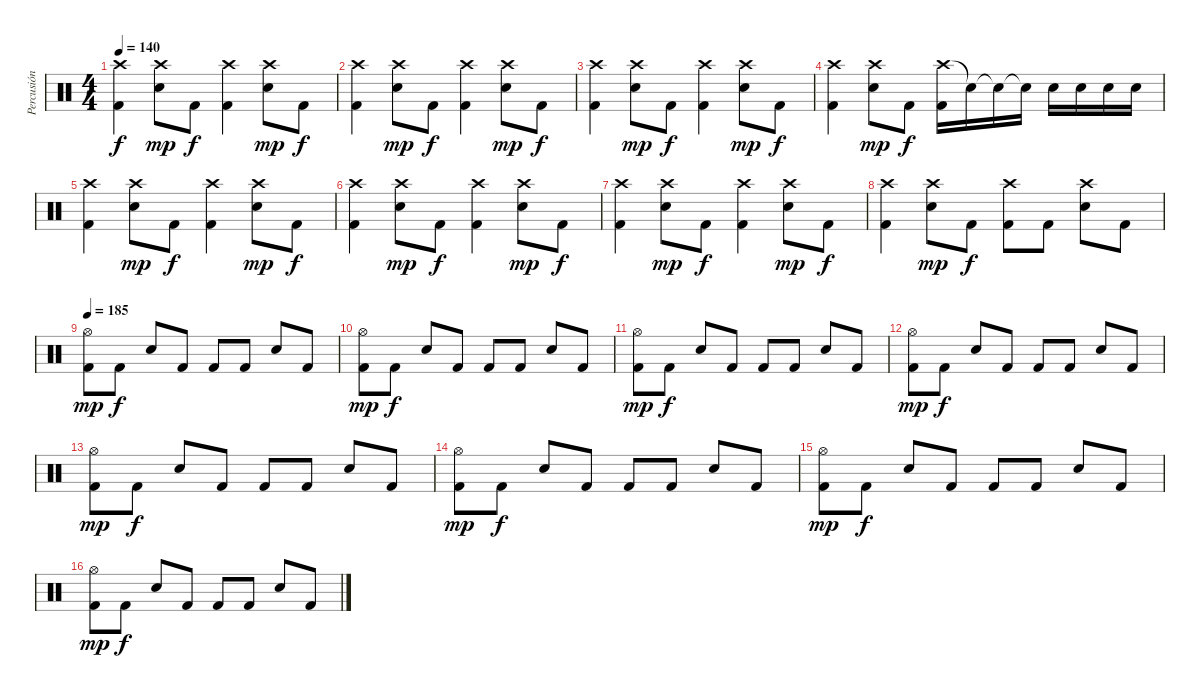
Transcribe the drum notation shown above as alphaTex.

\track ("Percusión" "Percusión") {instrument percussion}
\staff {score}
\articulation defaults
\ts (4 4)
\tempo 140
\clef neutral
\ks c
("Crash high (hit)" "Kick (hit) 2").4{dy f} ("Crash high (hit)" "Electric Snare (hit)").8{dy mp} "Kick (hit) 2".8{dy f} ("Crash high (hit)" "Kick (hit) 2").4 ("Crash high (hit)" "Electric Snare (hit)").8{dy mp} "Kick (hit) 2".8{dy f} |
("Crash high (hit)" "Kick (hit) 2").4 ("Crash high (hit)" "Electric Snare (hit)").8{dy mp} "Kick (hit) 2".8{dy f} ("Crash high (hit)" "Kick (hit) 2").4 ("Crash high (hit)" "Electric Snare (hit)").8{dy mp} "Kick (hit) 2".8{dy f} |
("Crash high (hit)" "Kick (hit) 2").4 ("Crash high (hit)" "Electric Snare (hit)").8{dy mp} "Kick (hit) 2".8{dy f} ("Crash high (hit)" "Kick (hit) 2").4 ("Crash high (hit)" "Electric Snare (hit)").8{dy mp} "Kick (hit) 2".8{dy f} |
("Crash high (hit)" "Kick (hit) 2").4 ("Crash high (hit)" "Electric Snare (hit)").8{dy mp} "Kick (hit) 2".8{dy f} ("Crash high (hit)" "Kick (hit) 2").16 "Electric Snare (hit)"{t}.16 "Electric Snare (hit)"{t}.16 "Electric Snare (hit)"{t}.16 "Electric Snare (hit)".16 "Electric Snare (hit)".16 "Electric Snare (hit)".16 "Electric Snare (hit)".16 |
("Crash high (hit)" "Kick (hit) 2").4 ("Crash high (hit)" "Electric Snare (hit)").8{dy mp} "Kick (hit) 2".8{dy f} ("Crash high (hit)" "Kick (hit) 2").4 ("Crash high (hit)" "Electric Snare (hit)").8{dy mp} "Kick (hit) 2".8{dy f} |
("Crash high (hit)" "Kick (hit) 2").4 ("Crash high (hit)" "Electric Snare (hit)").8{dy mp} "Kick (hit) 2".8{dy f} ("Crash high (hit)" "Kick (hit) 2").4 ("Crash high (hit)" "Electric Snare (hit)").8{dy mp} "Kick (hit) 2".8{dy f} |
("Crash high (hit)" "Kick (hit) 2").4 ("Crash high (hit)" "Electric Snare (hit)").8{dy mp} "Kick (hit) 2".8{dy f} ("Crash high (hit)" "Kick (hit) 2").4 ("Crash high (hit)" "Electric Snare (hit)").8{dy mp} "Kick (hit) 2".8{dy f} |
("Crash high (hit)" "Kick (hit) 2").4 ("Crash high (hit)" "Electric Snare (hit)").8{dy mp} "Kick (hit) 2".8{dy f} ("Crash high (hit)" "Kick (hit) 2").8 "Kick (hit) 2".8 ("Crash high (hit)" "Electric Snare (hit)").8 "Kick (hit) 2".8 |
\tempo 185
("Kick (hit) 2" "Hi-Hat (open)").8{dy mp} "Kick (hit) 2".8{dy f} "Electric Snare (hit)".8 "Kick (hit) 2".8 "Kick (hit) 2".8 "Kick (hit) 2".8 "Electric Snare (hit)".8 "Kick (hit) 2".8 |
("Kick (hit) 2" "Hi-Hat (open)").8{dy mp} "Kick (hit) 2".8{dy f} "Electric Snare (hit)".8 "Kick (hit) 2".8 "Kick (hit) 2".8 "Kick (hit) 2".8 "Electric Snare (hit)".8 "Kick (hit) 2".8 |
("Kick (hit) 2" "Hi-Hat (open)").8{dy mp} "Kick (hit) 2".8{dy f} "Electric Snare (hit)".8 "Kick (hit) 2".8 "Kick (hit) 2".8 "Kick (hit) 2".8 "Electric Snare (hit)".8 "Kick (hit) 2".8 |
("Kick (hit) 2" "Hi-Hat (open)").8{dy mp} "Kick (hit) 2".8{dy f} "Electric Snare (hit)".8 "Kick (hit) 2".8 "Kick (hit) 2".8 "Kick (hit) 2".8 "Electric Snare (hit)".8 "Kick (hit) 2".8 |
("Kick (hit) 2" "Hi-Hat (open)").8{dy mp} "Kick (hit) 2".8{dy f} "Electric Snare (hit)".8 "Kick (hit) 2".8 "Kick (hit) 2".8 "Kick (hit) 2".8 "Electric Snare (hit)".8 "Kick (hit) 2".8 |
("Kick (hit) 2" "Hi-Hat (open)").8{dy mp} "Kick (hit) 2".8{dy f} "Electric Snare (hit)".8 "Kick (hit) 2".8 "Kick (hit) 2".8 "Kick (hit) 2".8 "Electric Snare (hit)".8 "Kick (hit) 2".8 |
("Kick (hit) 2" "Hi-Hat (open)").8{dy mp} "Kick (hit) 2".8{dy f} "Electric Snare (hit)".8 "Kick (hit) 2".8 "Kick (hit) 2".8 "Kick (hit) 2".8 "Electric Snare (hit)".8 "Kick (hit) 2".8 |
("Kick (hit) 2" "Hi-Hat (open)").8{dy mp} "Kick (hit) 2".8{dy f} "Electric Snare (hit)".8 "Kick (hit) 2".8 "Kick (hit) 2".8 "Kick (hit) 2".8 "Electric Snare (hit)".8 "Kick (hit) 2".8
